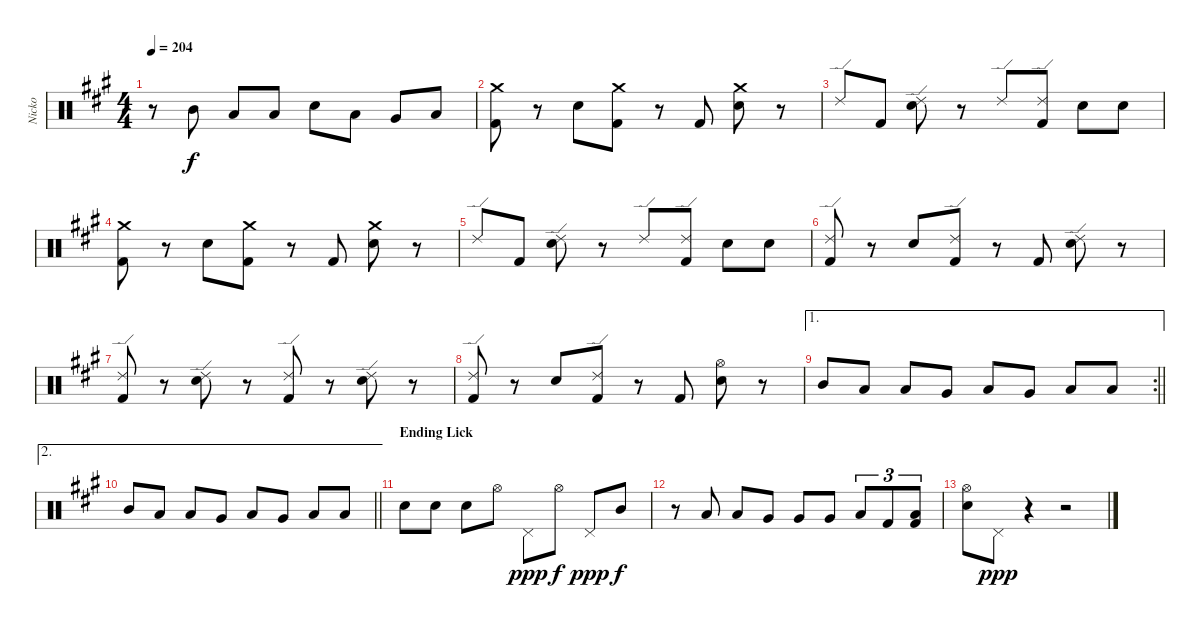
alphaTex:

\track ("Nicko" "Nicko") {instrument percussion}
\staff {score}
\articulation defaults
\ts (4 4)
\tempo 204
\clef neutral
\ks a
r.8{dy f} "Mid Tom (hit)".8 "Low Tom (hit)".8 "Low Tom (hit)".8 "Snare (hit) 2".8 "Low Tom (hit)".8 "Very Low Tom (hit)".8 "Low Floor Tom (hit)".8 |
("Crash medium (hit)" "Kick (hit) 2").8 r.8 "Snare (hit) 2".8 ("Crash medium (hit)" "Kick (hit) 2").8 r.8 "Kick (hit) 2".8 ("Crash medium (hit)" "Snare (hit) 2").8 r.8 |
"Ride (edge) 2".8 "Kick (hit) 2".8 ("Ride (edge) 2" "Snare (hit) 2").8 r.8 "Ride (edge) 2".8 ("Ride (edge) 2" "Kick (hit) 2").8 "Snare (hit) 2".8 "Snare (hit) 2".8 |
("Crash medium (hit)" "Kick (hit) 2").8 r.8 "Snare (hit) 2".8 ("Crash medium (hit)" "Kick (hit) 2").8 r.8 "Kick (hit) 2".8 ("Crash medium (hit)" "Snare (hit) 2").8 r.8 |
"Ride (edge) 2".8 "Kick (hit) 2".8 ("Ride (edge) 2" "Snare (hit) 2").8 r.8 "Ride (edge) 2".8 ("Ride (edge) 2" "Kick (hit) 2").8 "Snare (hit) 2".8 "Snare (hit) 2".8 |
("Ride (edge) 2" "Kick (hit) 2").8 r.8 "Snare (hit) 2".8 ("Ride (edge) 2" "Kick (hit) 2").8 r.8 "Kick (hit) 2".8 ("Ride (edge) 2" "Snare (hit) 2").8 r.8 |
("Ride (edge) 2" "Kick (hit) 2").8 r.8 ("Ride (edge) 2" "Snare (hit) 2").8 r.8 ("Ride (edge) 2" "Kick (hit) 2").8 r.8 ("Ride (edge) 2" "Snare (hit) 2").8 r.8 |
("Ride (edge) 2" "Kick (hit) 2").8 r.8 "Snare (hit) 2".8 ("Ride (edge) 2" "Kick (hit) 2").8 r.8 "Kick (hit) 2".8 ("Hi-Hat (open)" "Snare (hit) 2").8 r.8 |
\ae 1
\rc 2
\barLineRight lightlight "Mid Tom (hit)".8 "Low Tom (hit)".8 "Low Tom (hit)".8 "Very Low Tom (hit)".8 "Low Tom (hit)".8 "Very Low Tom (hit)".8 "Low Floor Tom (hit)".8 "Low Floor Tom (hit)".8
|
\ae 2
\barLineRight lightlight "Mid Tom (hit)".8 "Low Tom (hit)".8 "Low Tom (hit)".8 "Very Low Tom (hit)".8 "Low Tom (hit)".8 "Very Low Tom (hit)".8 "Low Floor Tom (hit)".8 "Low Floor Tom (hit)".8
|
\section ("" "Ending Lick")
"Snare (hit) 2".8 "Snare (hit) 2".8 "Snare (hit) 2".8 "Hi-Hat (open)".8 "Pedal Hi-Hat (hit)".8{dy ppp} "Hi-Hat (open)".8{dy f} "Pedal Hi-Hat (hit)".8{dy ppp} "Mid Tom (hit)".8{dy f} |
r.8 "Low Tom (hit)".8 "Low Tom (hit)".8 "Very Low Tom (hit)".8 "Very Low Tom (hit)".8 "Very Low Tom (hit)".8 "Low Floor Tom (hit)".8{tu (3 2)} "Kick (hit) 2".8{tu (3 2)} ("Low Floor Tom (hit)" "Kick (hit) 2").8{tu (3 2)} |
("Hi-Hat (open)" "Snare (hit) 2").8 "Pedal Hi-Hat (hit)".8{dy ppp} r.4 r.2
